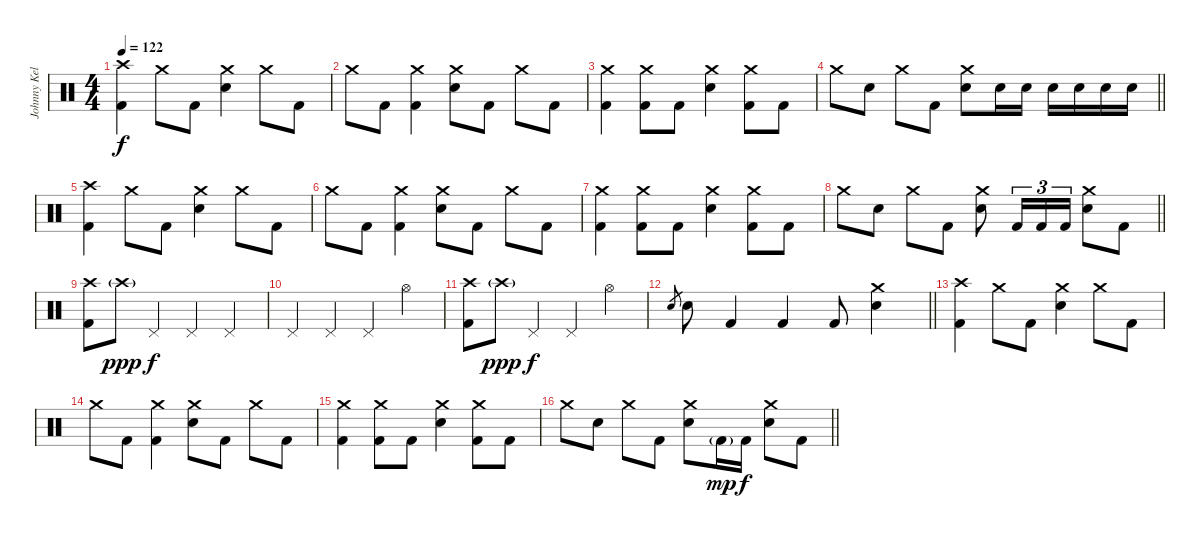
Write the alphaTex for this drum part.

\track ("Johnny Kelly" "Johnny Kel") {instrument percussion}
\staff {score}
\articulation defaults
\ts (4 4)
\section ("" "")
\tempo 122
\clef neutral
\ks c
("Crash high (hit)" "Kick (hit) 2").4{dy f} "Crash medium (hit)".8 "Kick (hit) 2".8 ("Crash medium (hit)" "Electric Snare (hit)").4 "Crash medium (hit)".8 "Kick (hit) 2".8 |
"Crash medium (hit)".8 "Kick (hit) 2".8 ("Crash medium (hit)" "Kick (hit) 2").4 ("Crash medium (hit)" "Electric Snare (hit)").8 "Kick (hit) 2".8 "Crash medium (hit)".8 "Kick (hit) 2".8 |
("Crash medium (hit)" "Kick (hit) 2").4 ("Crash medium (hit)" "Kick (hit) 2").8 "Kick (hit) 2".8 ("Crash medium (hit)" "Electric Snare (hit)").4 ("Crash medium (hit)" "Kick (hit) 2").8 "Kick (hit) 2".8 |
\barLineRight lightlight "Crash medium (hit)".8 "Electric Snare (hit)".8 "Crash medium (hit)".8 "Kick (hit) 2".8
("Crash medium (hit)" "Electric Snare (hit)").8 "Electric Snare (hit)".16 "Electric Snare (hit)".16 "Electric Snare (hit)".16 "Electric Snare (hit)".16 "Electric Snare (hit)".16 "Electric Snare (hit)".16 |
("Crash high (hit)" "Kick (hit) 2").4 "Crash medium (hit)".8 "Kick (hit) 2".8 ("Crash medium (hit)" "Electric Snare (hit)").4 "Crash medium (hit)".8 "Kick (hit) 2".8 |
"Crash medium (hit)".8 "Kick (hit) 2".8 ("Crash medium (hit)" "Kick (hit) 2").4 ("Crash medium (hit)" "Electric Snare (hit)").8 "Kick (hit) 2".8 "Crash medium (hit)".8 "Kick (hit) 2".8 |
("Crash medium (hit)" "Kick (hit) 2").4 ("Crash medium (hit)" "Kick (hit) 2").8 "Kick (hit) 2".8 ("Crash medium (hit)" "Electric Snare (hit)").4 ("Crash medium (hit)" "Kick (hit) 2").8 "Kick (hit) 2".8 |
\barLineRight lightlight "Crash medium (hit)".8 "Electric Snare (hit)".8 "Crash medium (hit)".8 "Kick (hit) 2".8
("Crash medium (hit)" "Electric Snare (hit)").8 "Kick (hit) 2".16{tu (3 2)} "Kick (hit) 2".16{tu (3 2)} "Kick (hit) 2".16{tu (3 2)} ("Crash medium (hit)" "Electric Snare (hit)").8 "Kick (hit) 2".8 |
\section ("" "")
("Crash high (hit)" "Kick (hit) 2").8 "Crash high (hit)"{g}.8{dy ppp} "Pedal Hi-Hat (hit)".4{dy f} "Pedal Hi-Hat (hit)".4 "Pedal Hi-Hat (hit)".4 |
"Pedal Hi-Hat (hit)".4 "Pedal Hi-Hat (hit)".4 "Pedal Hi-Hat (hit)".4 "Hi-Hat (open)".4 |
("Crash high (hit)" "Kick (hit) 2").8 "Crash high (hit)"{g}.8{dy ppp} "Pedal Hi-Hat (hit)".4{dy f} "Pedal Hi-Hat (hit)".4 "Hi-Hat (open)".4 |
\barLineRight lightlight "Electric Snare (hit)".8{gr} "Electric Snare (hit)".8 "Kick (hit) 2".4 "Kick (hit) 2".4 "Kick (hit) 2".8
("Crash medium (hit)" "Electric Snare (hit)").4 |
\section ("" "")
("Crash high (hit)" "Kick (hit) 2").4 "Crash medium (hit)".8 "Kick (hit) 2".8 ("Crash medium (hit)" "Electric Snare (hit)").4 "Crash medium (hit)".8 "Kick (hit) 2".8 |
"Crash medium (hit)".8 "Kick (hit) 2".8 ("Crash medium (hit)" "Kick (hit) 2").4 ("Crash medium (hit)" "Electric Snare (hit)").8 "Kick (hit) 2".8 "Crash medium (hit)".8 "Kick (hit) 2".8 |
("Crash medium (hit)" "Kick (hit) 2").4 ("Crash medium (hit)" "Kick (hit) 2").8 "Kick (hit) 2".8 ("Crash medium (hit)" "Electric Snare (hit)").4 ("Crash medium (hit)" "Kick (hit) 2").8 "Kick (hit) 2".8 |
\barLineRight lightlight "Crash medium (hit)".8 "Electric Snare (hit)".8 "Crash medium (hit)".8 "Kick (hit) 2".8
("Crash medium (hit)" "Electric Snare (hit)").8 "Kick (hit) 2"{g}.16{dy mp} "Kick (hit) 2".16{dy f} ("Crash medium (hit)" "Electric Snare (hit)").8 "Kick (hit) 2".8
